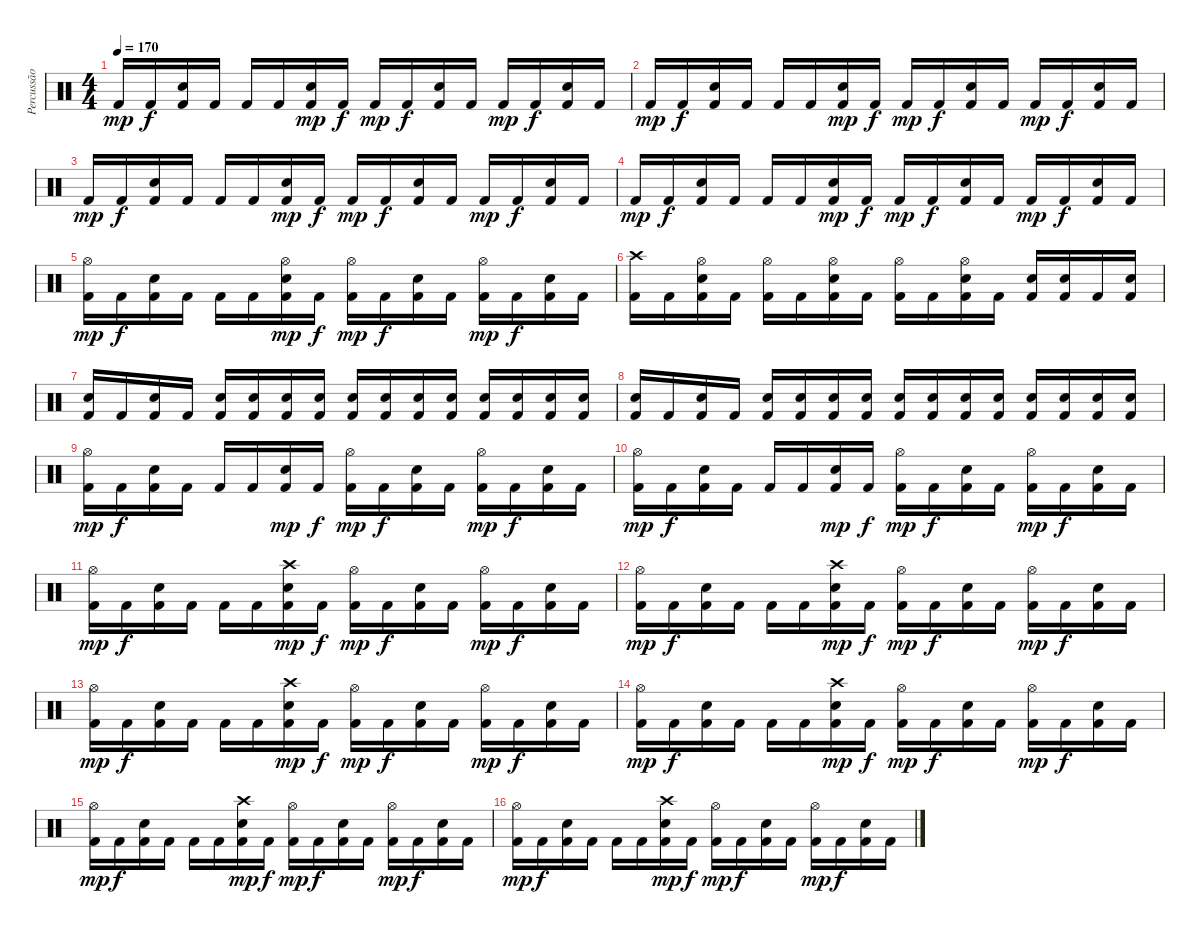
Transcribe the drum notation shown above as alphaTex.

\track ("Percussão" "Percussão") {instrument percussion}
\staff {score}
\articulation defaults
\ts (4 4)
\tempo 170
\clef neutral
\ks c "Kick (hit) 2".16{dy mp} "Kick (hit) 2".16{dy f}
("Electric Snare (hit)" "Kick (hit) 2").16 "Kick (hit) 2".16 "Kick (hit) 2".16 "Kick (hit) 2".16 ("Electric Snare (hit)" "Kick (hit) 2").16{dy mp} "Kick (hit) 2".16{dy f} "Kick (hit) 2".16{dy mp} "Kick (hit) 2".16{dy f} ("Electric Snare (hit)" "Kick (hit) 2").16 "Kick (hit) 2".16 "Kick (hit) 2".16{dy mp} "Kick (hit) 2".16{dy f} ("Electric Snare (hit)" "Kick (hit) 2").16 "Kick (hit) 2".16 |
"Kick (hit) 2".16{dy mp} "Kick (hit) 2".16{dy f} ("Electric Snare (hit)" "Kick (hit) 2").16 "Kick (hit) 2".16 "Kick (hit) 2".16 "Kick (hit) 2".16 ("Electric Snare (hit)" "Kick (hit) 2").16{dy mp} "Kick (hit) 2".16{dy f} "Kick (hit) 2".16{dy mp} "Kick (hit) 2".16{dy f} ("Electric Snare (hit)" "Kick (hit) 2").16 "Kick (hit) 2".16 "Kick (hit) 2".16{dy mp} "Kick (hit) 2".16{dy f} ("Electric Snare (hit)" "Kick (hit) 2").16 "Kick (hit) 2".16 |
"Kick (hit) 2".16{dy mp} "Kick (hit) 2".16{dy f} ("Electric Snare (hit)" "Kick (hit) 2").16 "Kick (hit) 2".16 "Kick (hit) 2".16 "Kick (hit) 2".16 ("Electric Snare (hit)" "Kick (hit) 2").16{dy mp} "Kick (hit) 2".16{dy f} "Kick (hit) 2".16{dy mp} "Kick (hit) 2".16{dy f} ("Electric Snare (hit)" "Kick (hit) 2").16 "Kick (hit) 2".16 "Kick (hit) 2".16{dy mp} "Kick (hit) 2".16{dy f} ("Electric Snare (hit)" "Kick (hit) 2").16 "Kick (hit) 2".16 |
"Kick (hit) 2".16{dy mp} "Kick (hit) 2".16{dy f} ("Electric Snare (hit)" "Kick (hit) 2").16 "Kick (hit) 2".16 "Kick (hit) 2".16 "Kick (hit) 2".16 ("Electric Snare (hit)" "Kick (hit) 2").16{dy mp} "Kick (hit) 2".16{dy f} "Kick (hit) 2".16{dy mp} "Kick (hit) 2".16{dy f} ("Electric Snare (hit)" "Kick (hit) 2").16 "Kick (hit) 2".16 "Kick (hit) 2".16{dy mp} "Kick (hit) 2".16{dy f} ("Electric Snare (hit)" "Kick (hit) 2").16 "Kick (hit) 2".16 |
("Hi-Hat (open)" "Kick (hit) 2").16{dy mp} "Kick (hit) 2".16{dy f} ("Electric Snare (hit)" "Kick (hit) 2").16 "Kick (hit) 2".16 "Kick (hit) 2".16 "Kick (hit) 2".16 ("Hi-Hat (open)" "Electric Snare (hit)" "Kick (hit) 2").16{dy mp} "Kick (hit) 2".16{dy f} ("Hi-Hat (open)" "Kick (hit) 2").16{dy mp} "Kick (hit) 2".16{dy f} ("Electric Snare (hit)" "Kick (hit) 2").16 "Kick (hit) 2".16 ("Hi-Hat (open)" "Kick (hit) 2").16{dy mp} "Kick (hit) 2".16{dy f} ("Electric Snare (hit)" "Kick (hit) 2").16 "Kick (hit) 2".16 |
("Crash high (hit)" "Kick (hit) 2").16 "Kick (hit) 2".16 ("Hi-Hat (open)" "Electric Snare (hit)" "Kick (hit) 2").16 "Kick (hit) 2".16 ("Hi-Hat (open)" "Kick (hit) 2").16 "Kick (hit) 2".16 ("Hi-Hat (open)" "Electric Snare (hit)" "Kick (hit) 2").16 "Kick (hit) 2".16 ("Hi-Hat (open)" "Kick (hit) 2").16 "Kick (hit) 2".16 ("Hi-Hat (open)" "Electric Snare (hit)" "Kick (hit) 2").16 "Kick (hit) 2".16 ("Electric Snare (hit)" "Kick (hit) 2").16 ("Electric Snare (hit)" "Kick (hit) 2").16 "Kick (hit) 2".16 ("Electric Snare (hit)" "Kick (hit) 2").16 |
("Electric Snare (hit)" "Kick (hit) 2").16 "Kick (hit) 2".16 ("Electric Snare (hit)" "Kick (hit) 2").16 "Kick (hit) 2".16 ("Electric Snare (hit)" "Kick (hit) 2").16 ("Electric Snare (hit)" "Kick (hit) 2").16 ("Electric Snare (hit)" "Kick (hit) 2").16 ("Electric Snare (hit)" "Kick (hit) 2").16 ("Electric Snare (hit)" "Kick (hit) 2").16 ("Electric Snare (hit)" "Kick (hit) 2").16 ("Electric Snare (hit)" "Kick (hit) 2").16 ("Electric Snare (hit)" "Kick (hit) 2").16 ("Electric Snare (hit)" "Kick (hit) 2").16 ("Electric Snare (hit)" "Kick (hit) 2").16 ("Electric Snare (hit)" "Kick (hit) 2").16 ("Electric Snare (hit)" "Kick (hit) 2").16 |
("Electric Snare (hit)" "Kick (hit) 2").16 "Kick (hit) 2".16 ("Electric Snare (hit)" "Kick (hit) 2").16 "Kick (hit) 2".16 ("Electric Snare (hit)" "Kick (hit) 2").16 ("Electric Snare (hit)" "Kick (hit) 2").16 ("Electric Snare (hit)" "Kick (hit) 2").16 ("Electric Snare (hit)" "Kick (hit) 2").16 ("Electric Snare (hit)" "Kick (hit) 2").16 ("Electric Snare (hit)" "Kick (hit) 2").16 ("Electric Snare (hit)" "Kick (hit) 2").16 ("Electric Snare (hit)" "Kick (hit) 2").16 ("Electric Snare (hit)" "Kick (hit) 2").16 ("Electric Snare (hit)" "Kick (hit) 2").16 ("Electric Snare (hit)" "Kick (hit) 2").16 ("Electric Snare (hit)" "Kick (hit) 2").16 |
("Hi-Hat (open)" "Kick (hit) 2").16{dy mp} "Kick (hit) 2".16{dy f} ("Electric Snare (hit)" "Kick (hit) 2").16 "Kick (hit) 2".16 "Kick (hit) 2".16 "Kick (hit) 2".16 ("Electric Snare (hit)" "Kick (hit) 2").16{dy mp} "Kick (hit) 2".16{dy f} ("Hi-Hat (open)" "Kick (hit) 2").16{dy mp} "Kick (hit) 2".16{dy f} ("Electric Snare (hit)" "Kick (hit) 2").16 "Kick (hit) 2".16 ("Hi-Hat (open)" "Kick (hit) 2").16{dy mp} "Kick (hit) 2".16{dy f} ("Electric Snare (hit)" "Kick (hit) 2").16 "Kick (hit) 2".16 |
("Hi-Hat (open)" "Kick (hit) 2").16{dy mp} "Kick (hit) 2".16{dy f} ("Electric Snare (hit)" "Kick (hit) 2").16 "Kick (hit) 2".16 "Kick (hit) 2".16 "Kick (hit) 2".16 ("Electric Snare (hit)" "Kick (hit) 2").16{dy mp} "Kick (hit) 2".16{dy f} ("Hi-Hat (open)" "Kick (hit) 2").16{dy mp} "Kick (hit) 2".16{dy f} ("Electric Snare (hit)" "Kick (hit) 2").16 "Kick (hit) 2".16 ("Hi-Hat (open)" "Kick (hit) 2").16{dy mp} "Kick (hit) 2".16{dy f} ("Electric Snare (hit)" "Kick (hit) 2").16 "Kick (hit) 2".16 |
("Hi-Hat (open)" "Kick (hit) 2").16{dy mp} "Kick (hit) 2".16{dy f} ("Electric Snare (hit)" "Kick (hit) 2").16 "Kick (hit) 2".16 "Kick (hit) 2".16 "Kick (hit) 2".16 ("Crash high (hit)" "Electric Snare (hit)" "Kick (hit) 2").16{dy mp} "Kick (hit) 2".16{dy f} ("Hi-Hat (open)" "Kick (hit) 2").16{dy mp} "Kick (hit) 2".16{dy f} ("Electric Snare (hit)" "Kick (hit) 2").16 "Kick (hit) 2".16 ("Hi-Hat (open)" "Kick (hit) 2").16{dy mp} "Kick (hit) 2".16{dy f} ("Electric Snare (hit)" "Kick (hit) 2").16 "Kick (hit) 2".16 |
("Hi-Hat (open)" "Kick (hit) 2").16{dy mp} "Kick (hit) 2".16{dy f} ("Electric Snare (hit)" "Kick (hit) 2").16 "Kick (hit) 2".16 "Kick (hit) 2".16 "Kick (hit) 2".16 ("Crash high (hit)" "Electric Snare (hit)" "Kick (hit) 2").16{dy mp} "Kick (hit) 2".16{dy f} ("Hi-Hat (open)" "Kick (hit) 2").16{dy mp} "Kick (hit) 2".16{dy f} ("Electric Snare (hit)" "Kick (hit) 2").16 "Kick (hit) 2".16 ("Hi-Hat (open)" "Kick (hit) 2").16{dy mp} "Kick (hit) 2".16{dy f} ("Electric Snare (hit)" "Kick (hit) 2").16 "Kick (hit) 2".16 |
("Hi-Hat (open)" "Kick (hit) 2").16{dy mp} "Kick (hit) 2".16{dy f} ("Electric Snare (hit)" "Kick (hit) 2").16 "Kick (hit) 2".16 "Kick (hit) 2".16 "Kick (hit) 2".16 ("Crash high (hit)" "Electric Snare (hit)" "Kick (hit) 2").16{dy mp} "Kick (hit) 2".16{dy f} ("Hi-Hat (open)" "Kick (hit) 2").16{dy mp} "Kick (hit) 2".16{dy f} ("Electric Snare (hit)" "Kick (hit) 2").16 "Kick (hit) 2".16 ("Hi-Hat (open)" "Kick (hit) 2").16{dy mp} "Kick (hit) 2".16{dy f} ("Electric Snare (hit)" "Kick (hit) 2").16 "Kick (hit) 2".16 |
("Hi-Hat (open)" "Kick (hit) 2").16{dy mp} "Kick (hit) 2".16{dy f} ("Electric Snare (hit)" "Kick (hit) 2").16 "Kick (hit) 2".16 "Kick (hit) 2".16 "Kick (hit) 2".16 ("Crash high (hit)" "Electric Snare (hit)" "Kick (hit) 2").16{dy mp} "Kick (hit) 2".16{dy f} ("Hi-Hat (open)" "Kick (hit) 2").16{dy mp} "Kick (hit) 2".16{dy f} ("Electric Snare (hit)" "Kick (hit) 2").16 "Kick (hit) 2".16 ("Hi-Hat (open)" "Kick (hit) 2").16{dy mp} "Kick (hit) 2".16{dy f} ("Electric Snare (hit)" "Kick (hit) 2").16 "Kick (hit) 2".16 |
("Hi-Hat (open)" "Kick (hit) 2").16{dy mp} "Kick (hit) 2".16{dy f} ("Electric Snare (hit)" "Kick (hit) 2").16 "Kick (hit) 2".16 "Kick (hit) 2".16 "Kick (hit) 2".16 ("Crash high (hit)" "Electric Snare (hit)" "Kick (hit) 2").16{dy mp} "Kick (hit) 2".16{dy f} ("Hi-Hat (open)" "Kick (hit) 2").16{dy mp} "Kick (hit) 2".16{dy f} ("Electric Snare (hit)" "Kick (hit) 2").16 "Kick (hit) 2".16 ("Hi-Hat (open)" "Kick (hit) 2").16{dy mp} "Kick (hit) 2".16{dy f} ("Electric Snare (hit)" "Kick (hit) 2").16 "Kick (hit) 2".16 |
("Hi-Hat (open)" "Kick (hit) 2").16{dy mp} "Kick (hit) 2".16{dy f} ("Electric Snare (hit)" "Kick (hit) 2").16 "Kick (hit) 2".16 "Kick (hit) 2".16 "Kick (hit) 2".16 ("Crash high (hit)" "Electric Snare (hit)" "Kick (hit) 2").16{dy mp} "Kick (hit) 2".16{dy f} ("Hi-Hat (open)" "Kick (hit) 2").16{dy mp} "Kick (hit) 2".16{dy f} ("Electric Snare (hit)" "Kick (hit) 2").16 "Kick (hit) 2".16 ("Hi-Hat (open)" "Kick (hit) 2").16{dy mp} "Kick (hit) 2".16{dy f} ("Electric Snare (hit)" "Kick (hit) 2").16 "Kick (hit) 2".16
